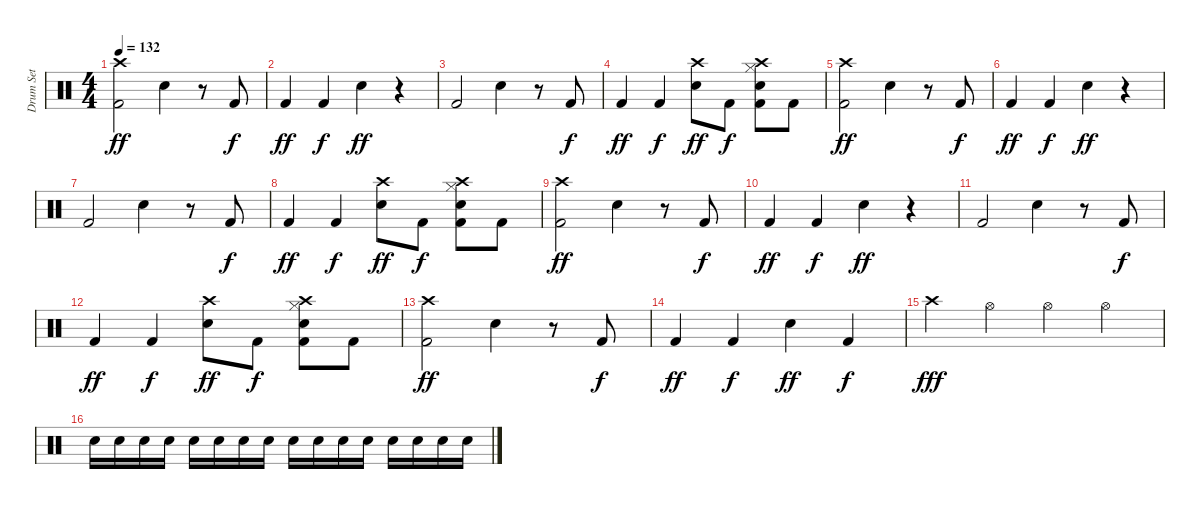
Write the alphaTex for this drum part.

\track ("Drum Set" "Drum Set") {instrument percussion}
\staff {score}
\articulation defaults
\ts (4 4)
\tempo 132
\clef neutral
\ks c
("Kick (hit) 2" "Crash high (hit)").2{dy ff} "Electric Snare (hit)".4 r.8 "Kick (hit) 2".8{dy f} |
"Kick (hit) 2".4{dy ff} "Kick (hit) 2".4{dy f} "Electric Snare (hit)".4{dy ff} r.4 |
"Kick (hit) 2".2 "Electric Snare (hit)".4 r.8 "Kick (hit) 2".8{dy f} |
"Kick (hit) 2".4{dy ff} "Kick (hit) 2".4{dy f} ("Electric Snare (hit)" "Crash high (hit)").8{dy ff} "Kick (hit) 2".8{dy f} ("Electric Snare (hit)" "Kick (hit) 2" "Crash high (hit)" "Hi-Hat (closed)").8 "Kick (hit) 2".8 |
("Kick (hit) 2" "Crash high (hit)").2{dy ff} "Electric Snare (hit)".4 r.8 "Kick (hit) 2".8{dy f} |
"Kick (hit) 2".4{dy ff} "Kick (hit) 2".4{dy f} "Electric Snare (hit)".4{dy ff} r.4 |
"Kick (hit) 2".2 "Electric Snare (hit)".4 r.8 "Kick (hit) 2".8{dy f} |
"Kick (hit) 2".4{dy ff} "Kick (hit) 2".4{dy f} ("Electric Snare (hit)" "Crash high (hit)").8{dy ff} "Kick (hit) 2".8{dy f} ("Electric Snare (hit)" "Kick (hit) 2" "Hi-Hat (closed)" "Crash high (hit)").8 "Kick (hit) 2".8 |
("Kick (hit) 2" "Crash high (hit)").2{dy ff} "Electric Snare (hit)".4 r.8 "Kick (hit) 2".8{dy f} |
"Kick (hit) 2".4{dy ff} "Kick (hit) 2".4{dy f} "Electric Snare (hit)".4{dy ff} r.4 |
"Kick (hit) 2".2 "Electric Snare (hit)".4 r.8 "Kick (hit) 2".8{dy f} |
"Kick (hit) 2".4{dy ff} "Kick (hit) 2".4{dy f} ("Electric Snare (hit)" "Crash high (hit)").8{dy ff} "Kick (hit) 2".8{dy f} ("Electric Snare (hit)" "Crash high (hit)" "Hi-Hat (closed)" "Kick (hit) 2").8 "Kick (hit) 2".8 |
("Kick (hit) 2" "Crash high (hit)").2{dy ff} "Electric Snare (hit)".4 r.8 "Kick (hit) 2".8{dy f} |
"Kick (hit) 2".4{dy ff} "Kick (hit) 2".4{dy f} "Electric Snare (hit)".4{dy ff} "Kick (hit) 2".4{dy f} |
"Crash high (hit)".4{dy fff} "Hi-Hat (open)".4 "Hi-Hat (open)".4 "Hi-Hat (open)".4 |
"Electric Snare (hit)".16 "Electric Snare (hit)".16 "Electric Snare (hit)".16 "Electric Snare (hit)".16 "Electric Snare (hit)".16 "Electric Snare (hit)".16 "Electric Snare (hit)".16 "Electric Snare (hit)".16 "Electric Snare (hit)".16 "Electric Snare (hit)".16 "Electric Snare (hit)".16 "Electric Snare (hit)".16 "Electric Snare (hit)".16 "Electric Snare (hit)".16 "Electric Snare (hit)".16 "Electric Snare (hit)".16
